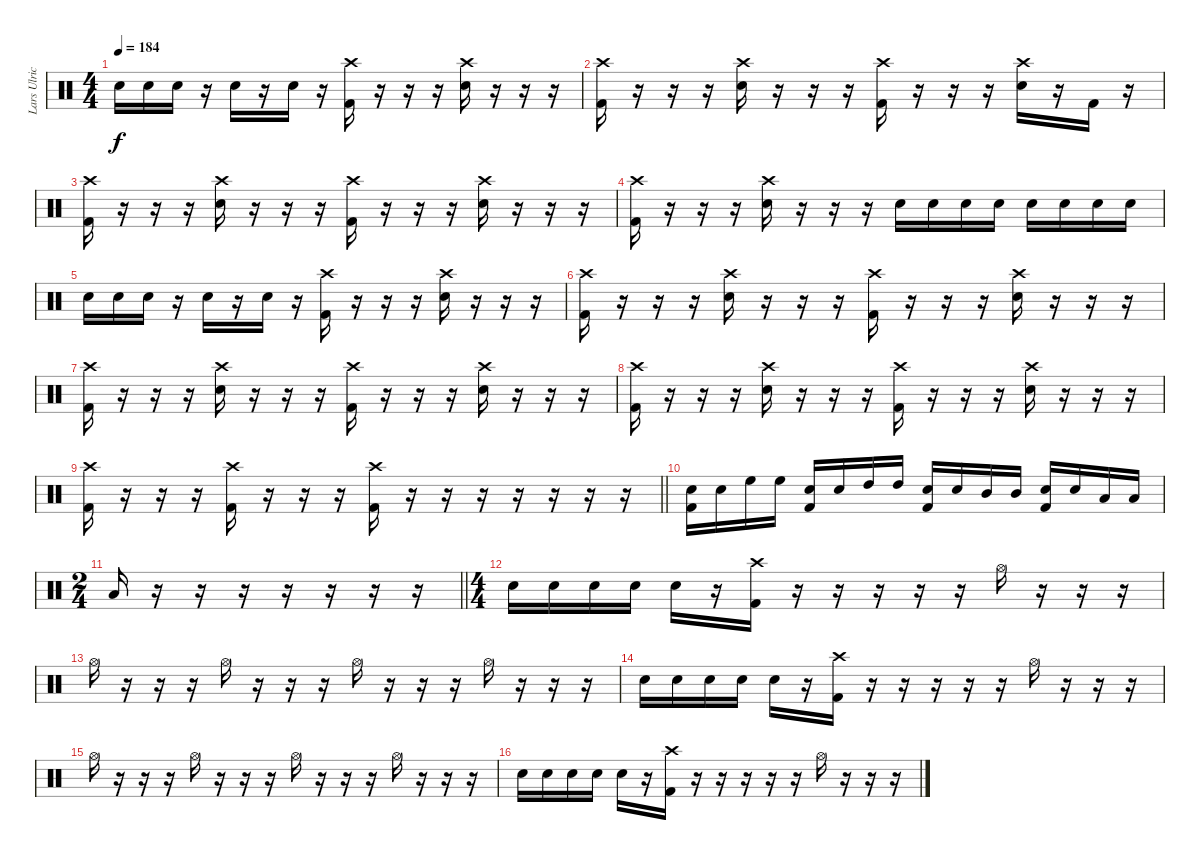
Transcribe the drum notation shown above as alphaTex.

\track ("Lars Ulrich" "Lars Ulric") {instrument percussion}
\staff {score}
\articulation defaults
\ts (4 4)
\tempo 184
\clef neutral
\ks c "Electric Snare (hit)".16{dy f} "Electric Snare (hit)".16 "Electric Snare (hit)".16
r.16 "Electric Snare (hit)".16 r.16 "Electric Snare (hit)".16 r.16 ("Crash high (hit)" "Kick (hit) 2").16 r.16 r.16 r.16 ("Crash high (hit)" "Electric Snare (hit)").16 r.16 r.16 r.16 |
("Crash high (hit)" "Kick (hit) 2").16 r.16 r.16 r.16 ("Crash high (hit)" "Electric Snare (hit)").16 r.16 r.16 r.16 ("Crash high (hit)" "Kick (hit) 2").16 r.16 r.16 r.16 ("Crash high (hit)" "Electric Snare (hit)").16 r.16 "Kick (hit) 2".16 r.16 |
("Crash high (hit)" "Kick (hit) 2").16 r.16 r.16 r.16 ("Crash high (hit)" "Electric Snare (hit)").16 r.16 r.16 r.16 ("Crash high (hit)" "Kick (hit) 2").16 r.16 r.16 r.16 ("Crash high (hit)" "Electric Snare (hit)").16 r.16 r.16 r.16 |
("Crash high (hit)" "Kick (hit) 2").16 r.16 r.16 r.16 ("Crash high (hit)" "Electric Snare (hit)").16 r.16 r.16 r.16 "Electric Snare (hit)".16 "Electric Snare (hit)".16 "Electric Snare (hit)".16 "Electric Snare (hit)".16 "Electric Snare (hit)".16 "Electric Snare (hit)".16 "Electric Snare (hit)".16 "Electric Snare (hit)".16 |
"Electric Snare (hit)".16 "Electric Snare (hit)".16 "Electric Snare (hit)".16 r.16 "Electric Snare (hit)".16 r.16 "Electric Snare (hit)".16 r.16 ("Crash high (hit)" "Kick (hit) 2").16 r.16 r.16 r.16 ("Crash high (hit)" "Electric Snare (hit)").16 r.16 r.16 r.16 |
("Crash high (hit)" "Kick (hit) 2").16 r.16 r.16 r.16 ("Crash high (hit)" "Electric Snare (hit)").16 r.16 r.16 r.16 ("Crash high (hit)" "Kick (hit) 2").16 r.16 r.16 r.16 ("Crash high (hit)" "Electric Snare (hit)").16 r.16 r.16 r.16 |
("Crash high (hit)" "Kick (hit) 2").16 r.16 r.16 r.16 ("Crash high (hit)" "Electric Snare (hit)").16 r.16 r.16 r.16 ("Crash high (hit)" "Kick (hit) 2").16 r.16 r.16 r.16 ("Crash high (hit)" "Electric Snare (hit)").16 r.16 r.16 r.16 |
("Crash high (hit)" "Kick (hit) 2").16 r.16 r.16 r.16 ("Crash high (hit)" "Electric Snare (hit)").16 r.16 r.16 r.16 ("Crash high (hit)" "Kick (hit) 2").16 r.16 r.16 r.16 ("Crash high (hit)" "Electric Snare (hit)").16 r.16 r.16 r.16 |
\barLineRight lightlight
("Crash high (hit)" "Kick (hit) 2").16 r.16 r.16 r.16{volume 0} ("Crash high (hit)" "Kick (hit) 2").16{volume 10} r.16 r.16 r.16{volume 0} ("Crash high (hit)" "Kick (hit) 2").16{volume 10} r.16 r.16 r.16{volume 0} r.16 r.16 r.16 r.16 |
("Electric Snare (hit)" "Kick (hit) 2").16{volume 10} "Electric Snare (hit)".16 "High Floor Tom (hit)".16 "High Floor Tom (hit)".16 ("Electric Snare (hit)" "Kick (hit) 2").16 "Electric Snare (hit)".16 "High Tom (hit)".16 "High Tom (hit)".16 ("Electric Snare (hit)" "Kick (hit) 2").16 "Electric Snare (hit)".16 "Mid Tom (hit)".16 "Mid Tom (hit)".16 ("Electric Snare (hit)" "Kick (hit) 2").16 "Electric Snare (hit)".16 "Low Tom (hit)".16 "Low Tom (hit)".16 |
\ts (2 4)
\barLineRight lightlight "Low Tom (hit)".16
r.16 r.16 r.16 r.16 r.16 r.16 r.16 |
\ts (4 4)
\section ("" "")
"Electric Snare (hit)".16 "Electric Snare (hit)".16 "Electric Snare (hit)".16 "Electric Snare (hit)".16 "Electric Snare (hit)".16 r.16 ("Crash high (hit)" "Kick (hit) 2").16 r.16 r.16 r.16 r.16 r.16 "Hi-Hat (open)".16 r.16 r.16 r.16 |
"Hi-Hat (open)".16 r.16 r.16 r.16 "Hi-Hat (open)".16 r.16 r.16 r.16 "Hi-Hat (open)".16 r.16 r.16 r.16 "Hi-Hat (open)".16 r.16 r.16 r.16 |
"Electric Snare (hit)".16 "Electric Snare (hit)".16 "Electric Snare (hit)".16 "Electric Snare (hit)".16 "Electric Snare (hit)".16 r.16 ("Crash high (hit)" "Kick (hit) 2").16 r.16 r.16 r.16 r.16 r.16 "Hi-Hat (open)".16 r.16 r.16 r.16 |
"Hi-Hat (open)".16 r.16 r.16 r.16 "Hi-Hat (open)".16 r.16 r.16 r.16 "Hi-Hat (open)".16 r.16 r.16 r.16 "Hi-Hat (open)".16 r.16 r.16 r.16 |
"Electric Snare (hit)".16 "Electric Snare (hit)".16 "Electric Snare (hit)".16 "Electric Snare (hit)".16 "Electric Snare (hit)".16 r.16 ("Crash high (hit)" "Kick (hit) 2").16 r.16 r.16 r.16 r.16 r.16 "Hi-Hat (open)".16 r.16 r.16 r.16
